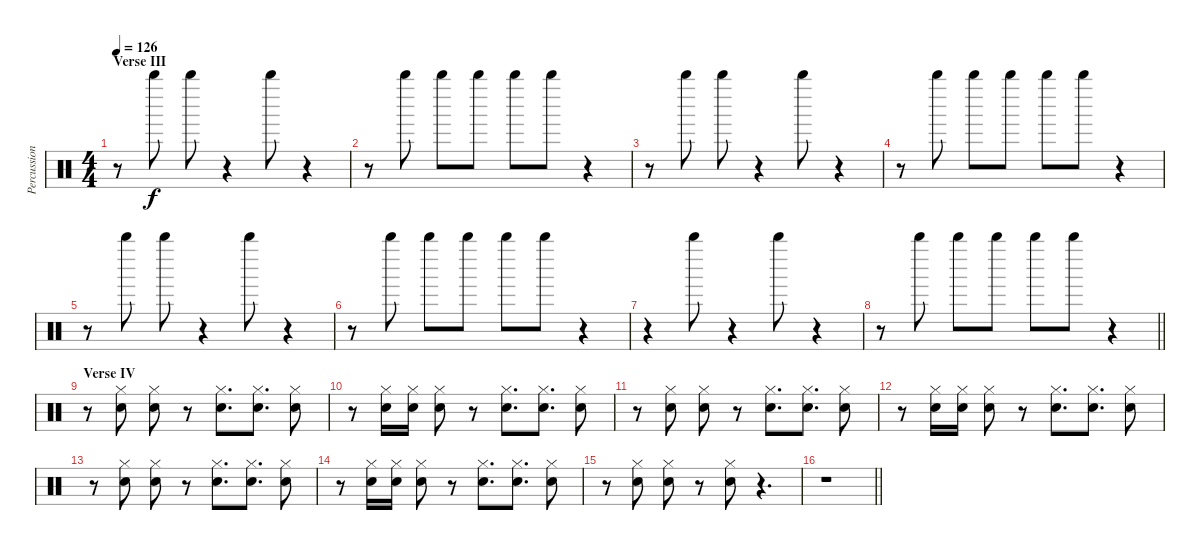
\track ("Percussion" "Percussion") {instrument percussion}
\staff {score}
\articulation defaults
\ts (4 4)
\section ("" "Verse III")
\tempo 126
\clef neutral
\ks c
r.8{dy f} "Whistle high (hit)".8 "Whistle high (hit)".8 r.4 "Whistle high (hit)".8 r.4 |
r.8 "Whistle high (hit)".8 "Whistle high (hit)".8 "Whistle high (hit)".8 "Whistle high (hit)".8 "Whistle high (hit)".8 r.4 |
r.8 "Whistle high (hit)".8 "Whistle high (hit)".8 r.4 "Whistle high (hit)".8 r.4 |
r.8 "Whistle high (hit)".8 "Whistle high (hit)".8 "Whistle high (hit)".8 "Whistle high (hit)".8 "Whistle high (hit)".8 r.4 |
r.8 "Whistle high (hit)".8 "Whistle high (hit)".8 r.4 "Whistle high (hit)".8 r.4 |
r.8 "Whistle high (hit)".8 "Whistle high (hit)".8 "Whistle high (hit)".8 "Whistle high (hit)".8 "Whistle high (hit)".8 r.4 |
r.4 "Whistle high (hit)".8 r.4 "Whistle high (hit)".8 r.4 |
\barLineRight lightlight
r.8 "Whistle high (hit)".8 "Whistle high (hit)".8 "Whistle high (hit)".8 "Whistle high (hit)".8 "Whistle high (hit)".8 r.4 |
\section ("" "Verse IV")
r.8 ("Hi-Hat (closed)" "Snare (hit) 2").8 ("Hi-Hat (closed)" "Snare (hit) 2").8 r.8 ("Hi-Hat (closed)" "Snare (hit) 2").8{d} ("Hi-Hat (closed)" "Snare (hit) 2").8{d} ("Hi-Hat (closed)" "Snare (hit) 2").8 |
r.8 ("Hi-Hat (closed)" "Snare (hit) 2").16 ("Hi-Hat (closed)" "Snare (hit) 2").16 ("Hi-Hat (closed)" "Snare (hit) 2").8 r.8 ("Hi-Hat (closed)" "Snare (hit) 2").8{d} ("Hi-Hat (closed)" "Snare (hit) 2").8{d} ("Hi-Hat (closed)" "Snare (hit) 2").8 |
r.8 ("Hi-Hat (closed)" "Snare (hit) 2").8 ("Hi-Hat (closed)" "Snare (hit) 2").8 r.8 ("Hi-Hat (closed)" "Snare (hit) 2").8{d} ("Hi-Hat (closed)" "Snare (hit) 2").8{d} ("Hi-Hat (closed)" "Snare (hit) 2").8 |
r.8 ("Hi-Hat (closed)" "Snare (hit) 2").16 ("Hi-Hat (closed)" "Snare (hit) 2").16 ("Hi-Hat (closed)" "Snare (hit) 2").8 r.8 ("Hi-Hat (closed)" "Snare (hit) 2").8{d} ("Hi-Hat (closed)" "Snare (hit) 2").8{d} ("Hi-Hat (closed)" "Snare (hit) 2").8 |
r.8 ("Hi-Hat (closed)" "Snare (hit) 2").8 ("Hi-Hat (closed)" "Snare (hit) 2").8 r.8 ("Hi-Hat (closed)" "Snare (hit) 2").8{d} ("Hi-Hat (closed)" "Snare (hit) 2").8{d} ("Hi-Hat (closed)" "Snare (hit) 2").8 |
r.8 ("Hi-Hat (closed)" "Snare (hit) 2").16 ("Hi-Hat (closed)" "Snare (hit) 2").16 ("Hi-Hat (closed)" "Snare (hit) 2").8 r.8 ("Hi-Hat (closed)" "Snare (hit) 2").8{d} ("Hi-Hat (closed)" "Snare (hit) 2").8{d} ("Hi-Hat (closed)" "Snare (hit) 2").8 |
r.8 ("Hi-Hat (closed)" "Snare (hit) 2").8 ("Hi-Hat (closed)" "Snare (hit) 2").8 r.8 ("Hi-Hat (closed)" "Snare (hit) 2").8 r.4{d} |
\barLineRight lightlight
r.1
